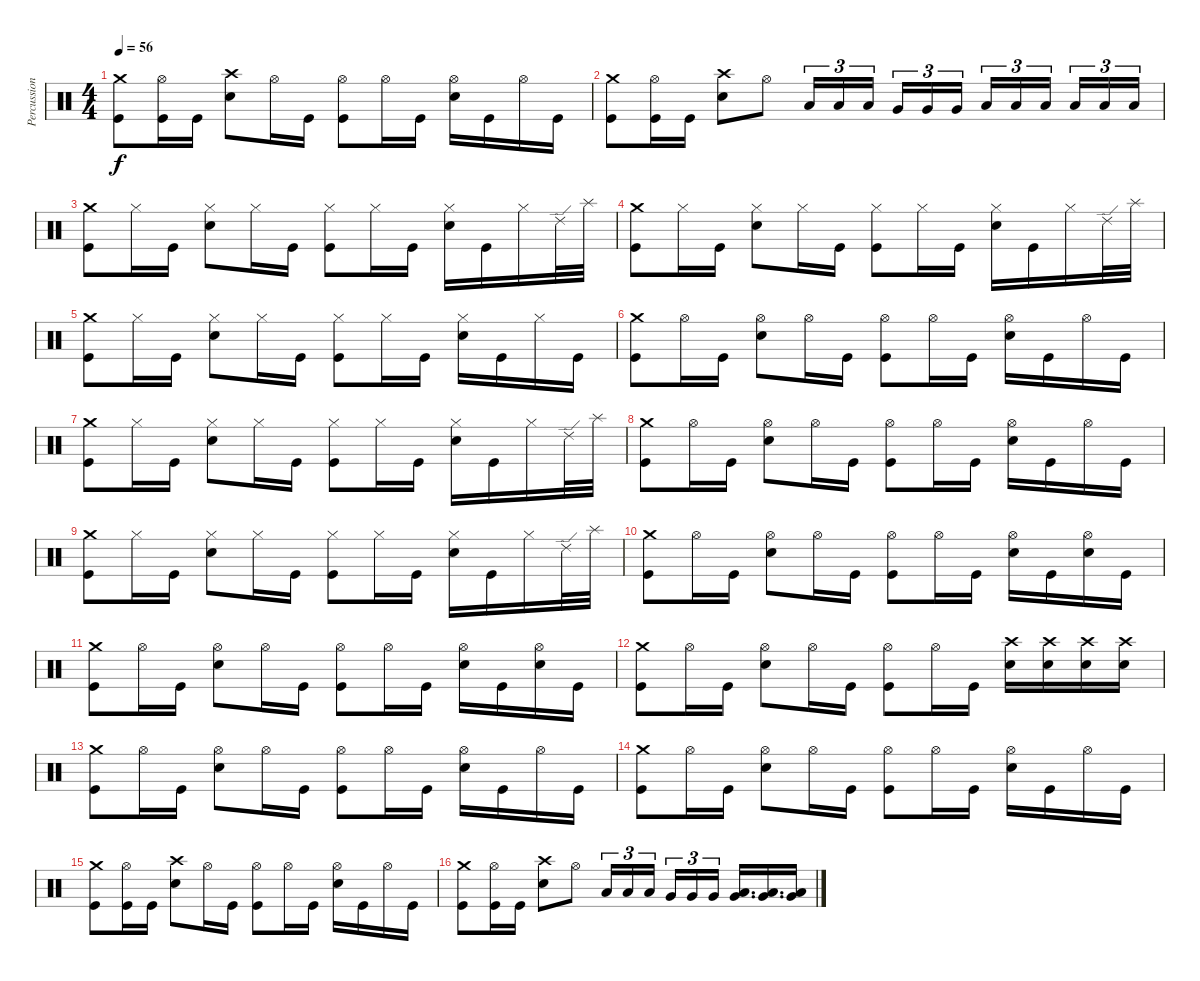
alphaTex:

\track ("Percussion" "Percussion") {instrument percussion}
\staff {score}
\articulation defaults
\ts (4 4)
\tempo 56
\clef neutral
\ks c
("Crash medium (hit)" "Kick (hit)").8{dy f} ("Hi-Hat (open)" "Kick (hit)").16 "Kick (hit)".16 ("Crash high (hit)" "Electric Snare (hit)").8 "Hi-Hat (open)".16 "Kick (hit)".16 ("Hi-Hat (open)" "Kick (hit)").8 "Hi-Hat (open)".16 "Kick (hit)".16 ("Hi-Hat (open)" "Electric Snare (hit)").16 "Kick (hit)".16 "Hi-Hat (open)".16 "Kick (hit)".16 |
("Crash medium (hit)" "Kick (hit)").8 ("Hi-Hat (open)" "Kick (hit)").16 "Kick (hit)".16 ("Crash high (hit)" "Electric Snare (hit)").8 "Hi-Hat (open)".8 "Low Tom (hit)".16{tu (3 2)} "Low Tom (hit)".16{tu (3 2)} "Low Tom (hit)".16{tu (3 2) beam splitsecondary} "Very Low Tom (hit)".16{tu (3 2)} "Very Low Tom (hit)".16{tu (3 2)} "Very Low Tom (hit)".16{tu (3 2)} "Low Floor Tom (hit)".16{tu (3 2)} "Low Floor Tom (hit)".16{tu (3 2)} "Low Floor Tom (hit)".16{tu (3 2) beam splitsecondary} "Low Floor Tom (hit)".16{tu (3 2)} "Low Floor Tom (hit)".16{tu (3 2)} "Low Floor Tom (hit)".16{tu (3 2)} |
("Crash medium (hit)" "Kick (hit)").8 "Hi-Hat (closed)".16 "Kick (hit)".16 ("Hi-Hat (closed)" "Electric Snare (hit)").8 "Hi-Hat (closed)".16 "Kick (hit)".16 ("Hi-Hat (closed)" "Kick (hit)").8 "Hi-Hat (closed)".16 "Kick (hit)".16 ("Hi-Hat (closed)" "Electric Snare (hit)").16 "Kick (hit)".16 "Hi-Hat (closed)".16 "Ride (edge) 2".32 "Splash (hit)".32 |
("Crash medium (hit)" "Kick (hit)").8 "Hi-Hat (closed)".16 "Kick (hit)".16 ("Hi-Hat (closed)" "Electric Snare (hit)").8 "Hi-Hat (closed)".16 "Kick (hit)".16 ("Hi-Hat (closed)" "Kick (hit)").8 "Hi-Hat (closed)".16 "Kick (hit)".16 ("Hi-Hat (closed)" "Electric Snare (hit)").16 "Kick (hit)".16 "Hi-Hat (closed)".16 "Ride (edge) 2".32 "Splash (hit)".32 |
("Crash medium (hit)" "Kick (hit)").8 "Hi-Hat (closed)".16 "Kick (hit)".16 ("Hi-Hat (closed)" "Electric Snare (hit)").8 "Hi-Hat (closed)".16 "Kick (hit)".16 ("Hi-Hat (closed)" "Kick (hit)").8 "Hi-Hat (closed)".16 "Kick (hit)".16 ("Hi-Hat (closed)" "Electric Snare (hit)").16 "Kick (hit)".16 "Hi-Hat (closed)".16 "Kick (hit)".16 |
("Crash medium (hit)" "Kick (hit)").8 "Hi-Hat (open)".16 "Kick (hit)".16 ("Hi-Hat (open)" "Electric Snare (hit)").8 "Hi-Hat (open)".16 "Kick (hit)".16 ("Hi-Hat (open)" "Kick (hit)").8 "Hi-Hat (open)".16 "Kick (hit)".16 ("Hi-Hat (open)" "Electric Snare (hit)").16 "Kick (hit)".16 "Hi-Hat (open)".16 "Kick (hit)".16 |
("Crash medium (hit)" "Kick (hit)").8 "Hi-Hat (closed)".16 "Kick (hit)".16 ("Hi-Hat (closed)" "Electric Snare (hit)").8 "Hi-Hat (closed)".16 "Kick (hit)".16 ("Hi-Hat (closed)" "Kick (hit)").8 "Hi-Hat (closed)".16 "Kick (hit)".16 ("Hi-Hat (closed)" "Electric Snare (hit)").16 "Kick (hit)".16 "Hi-Hat (closed)".16 "Ride (edge) 2".32 "Splash (hit)".32 |
("Crash medium (hit)" "Kick (hit)").8 "Hi-Hat (open)".16 "Kick (hit)".16 ("Hi-Hat (open)" "Electric Snare (hit)").8 "Hi-Hat (open)".16 "Kick (hit)".16 ("Hi-Hat (open)" "Kick (hit)").8 "Hi-Hat (open)".16 "Kick (hit)".16 ("Hi-Hat (open)" "Electric Snare (hit)").16 "Kick (hit)".16 "Hi-Hat (open)".16 "Kick (hit)".16 |
("Crash medium (hit)" "Kick (hit)").8 "Hi-Hat (closed)".16 "Kick (hit)".16 ("Hi-Hat (closed)" "Electric Snare (hit)").8 "Hi-Hat (closed)".16 "Kick (hit)".16 ("Hi-Hat (closed)" "Kick (hit)").8 "Hi-Hat (closed)".16 "Kick (hit)".16 ("Hi-Hat (closed)" "Electric Snare (hit)").16 "Kick (hit)".16 "Hi-Hat (closed)".16 "Ride (edge) 2".32 "Splash (hit)".32 |
("Crash medium (hit)" "Kick (hit)").8 "Hi-Hat (open)".16 "Kick (hit)".16 ("Hi-Hat (open)" "Electric Snare (hit)").8 "Hi-Hat (open)".16 "Kick (hit)".16 ("Hi-Hat (open)" "Kick (hit)").8 "Hi-Hat (open)".16 "Kick (hit)".16 ("Hi-Hat (open)" "Electric Snare (hit)").16 "Kick (hit)".16 ("Hi-Hat (open)" "Electric Snare (hit)").16 "Kick (hit)".16 |
("Crash medium (hit)" "Kick (hit)").8 "Hi-Hat (open)".16 "Kick (hit)".16 ("Hi-Hat (open)" "Electric Snare (hit)").8 "Hi-Hat (open)".16 "Kick (hit)".16 ("Hi-Hat (open)" "Kick (hit)").8 "Hi-Hat (open)".16 "Kick (hit)".16 ("Hi-Hat (open)" "Electric Snare (hit)").16 "Kick (hit)".16 ("Hi-Hat (open)" "Electric Snare (hit)").16 "Kick (hit)".16 |
("Crash medium (hit)" "Kick (hit)").8 "Hi-Hat (open)".16 "Kick (hit)".16 ("Hi-Hat (open)" "Electric Snare (hit)").8 "Hi-Hat (open)".16 "Kick (hit)".16 ("Hi-Hat (open)" "Kick (hit)").8 "Hi-Hat (open)".16 "Kick (hit)".16 ("Crash high (hit)" "Electric Snare (hit)").16 ("Crash high (hit)" "Electric Snare (hit)").16 ("Crash high (hit)" "Electric Snare (hit)").16 ("Crash high (hit)" "Electric Snare (hit)").16 |
("Crash medium (hit)" "Kick (hit)").8 "Hi-Hat (open)".16 "Kick (hit)".16 ("Hi-Hat (open)" "Electric Snare (hit)").8 "Hi-Hat (open)".16 "Kick (hit)".16 ("Hi-Hat (open)" "Kick (hit)").8 "Hi-Hat (open)".16 "Kick (hit)".16 ("Hi-Hat (open)" "Electric Snare (hit)").16 "Kick (hit)".16 "Hi-Hat (open)".16 "Kick (hit)".16 |
("Crash medium (hit)" "Kick (hit)").8 "Hi-Hat (open)".16 "Kick (hit)".16 ("Hi-Hat (open)" "Electric Snare (hit)").8 "Hi-Hat (open)".16 "Kick (hit)".16 ("Hi-Hat (open)" "Kick (hit)").8 "Hi-Hat (open)".16 "Kick (hit)".16 ("Hi-Hat (open)" "Electric Snare (hit)").16 "Kick (hit)".16 "Hi-Hat (open)".16 "Kick (hit)".16 |
("Crash medium (hit)" "Kick (hit)").8 ("Hi-Hat (open)" "Kick (hit)").16 "Kick (hit)".16 ("Crash high (hit)" "Electric Snare (hit)").8 "Hi-Hat (open)".16 "Kick (hit)".16 ("Hi-Hat (open)" "Kick (hit)").8 "Hi-Hat (open)".16 "Kick (hit)".16 ("Hi-Hat (open)" "Electric Snare (hit)").16 "Kick (hit)".16 "Hi-Hat (open)".16 "Kick (hit)".16 |
("Crash medium (hit)" "Kick (hit)").8 ("Hi-Hat (open)" "Kick (hit)").16 "Kick (hit)".16 ("Crash high (hit)" "Electric Snare (hit)").8 "Hi-Hat (open)".8 "Low Tom (hit)".16{tu (3 2)} "Low Tom (hit)".16{tu (3 2)} "Low Tom (hit)".16{tu (3 2) beam splitsecondary} "Very Low Tom (hit)".16{tu (3 2)} "Very Low Tom (hit)".16{tu (3 2)} "Very Low Tom (hit)".16{tu (3 2)} ("Very Low Tom (hit)" "Low Floor Tom (hit)").16{d} ("Very Low Tom (hit)" "Low Floor Tom (hit)").16{d} ("Very Low Tom (hit)" "Low Floor Tom (hit)").16
